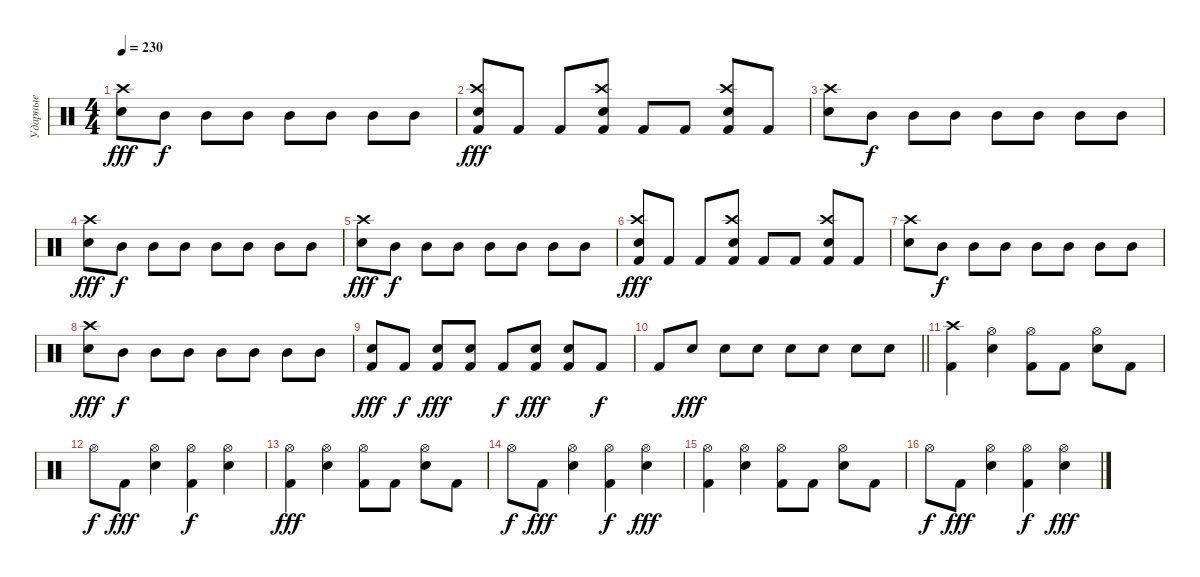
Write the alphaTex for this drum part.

\track ("Ударные" "Ударные") {instrument percussion}
\staff {score}
\articulation defaults
\ts (4 4)
\tempo 230
\clef neutral
\ks c
("Snare (hit) 2" "Crash high (hit)").8{dy fff} "Mid Tom (hit)".8{dy f} "Mid Tom (hit)".8 "Mid Tom (hit)".8 "Mid Tom (hit)".8 "Mid Tom (hit)".8 "Mid Tom (hit)".8 "Mid Tom (hit)".8 |
("Kick (hit) 2" "Snare (hit) 2" "Crash high (hit)").8{dy fff} "Kick (hit) 2".8 "Kick (hit) 2".8 ("Kick (hit) 2" "Snare (hit) 2" "Crash high (hit)").8 "Kick (hit) 2".8 "Kick (hit) 2".8 ("Kick (hit) 2" "Snare (hit) 2" "Crash high (hit)").8 "Kick (hit) 2".8 |
("Snare (hit) 2" "Crash high (hit)").8 "Mid Tom (hit)".8{dy f} "Mid Tom (hit)".8 "Mid Tom (hit)".8 "Mid Tom (hit)".8 "Mid Tom (hit)".8 "Mid Tom (hit)".8 "Mid Tom (hit)".8 |
("Snare (hit) 2" "Crash high (hit)").8{dy fff} "Mid Tom (hit)".8{dy f} "Mid Tom (hit)".8 "Mid Tom (hit)".8 "Mid Tom (hit)".8 "Mid Tom (hit)".8 "Mid Tom (hit)".8 "Mid Tom (hit)".8 |
("Snare (hit) 2" "Crash high (hit)").8{dy fff} "Mid Tom (hit)".8{dy f} "Mid Tom (hit)".8 "Mid Tom (hit)".8 "Mid Tom (hit)".8 "Mid Tom (hit)".8 "Mid Tom (hit)".8 "Mid Tom (hit)".8 |
("Kick (hit) 2" "Snare (hit) 2" "Crash high (hit)").8{dy fff} "Kick (hit) 2".8 "Kick (hit) 2".8 ("Kick (hit) 2" "Snare (hit) 2" "Crash high (hit)").8 "Kick (hit) 2".8 "Kick (hit) 2".8 ("Kick (hit) 2" "Snare (hit) 2" "Crash high (hit)").8 "Kick (hit) 2".8 |
("Snare (hit) 2" "Crash high (hit)").8 "Mid Tom (hit)".8{dy f} "Mid Tom (hit)".8 "Mid Tom (hit)".8 "Mid Tom (hit)".8 "Mid Tom (hit)".8 "Mid Tom (hit)".8 "Mid Tom (hit)".8 |
("Snare (hit) 2" "Crash high (hit)").8{dy fff} "Mid Tom (hit)".8{dy f} "Mid Tom (hit)".8 "Mid Tom (hit)".8 "Mid Tom (hit)".8 "Mid Tom (hit)".8 "Mid Tom (hit)".8 "Mid Tom (hit)".8 |
("Kick (hit) 2" "Snare (hit) 2").8{dy fff} "Kick (hit) 2".8{dy f} ("Kick (hit) 2" "Snare (hit) 2").8{dy fff} ("Kick (hit) 2" "Snare (hit) 2").8 "Kick (hit) 2".8{dy f} ("Kick (hit) 2" "Snare (hit) 2").8{dy fff} ("Kick (hit) 2" "Snare (hit) 2").8 "Kick (hit) 2".8{dy f} |
\barLineRight lightlight "Kick (hit) 2".8 "Snare (hit) 2".8{dy fff} "Snare (hit) 2".8 "Snare (hit) 2".8 "Snare (hit) 2".8 "Snare (hit) 2".8 "Snare (hit) 2".8 "Snare (hit) 2".8
|
("Kick (hit) 2" "Crash high (hit)").4 ("Snare (hit) 2" "Hi-Hat (open)").4 ("Kick (hit) 2" "Hi-Hat (open)").8 "Kick (hit) 2".8 ("Snare (hit) 2" "Hi-Hat (open)").8 "Kick (hit) 2".8 |
"Hi-Hat (open)".8{dy f} "Kick (hit) 2".8{dy fff} ("Snare (hit) 2" "Hi-Hat (open)").4 ("Kick (hit) 2" "Hi-Hat (open)").4{dy f} ("Snare (hit) 2" "Hi-Hat (open)").4 |
("Kick (hit) 2" "Hi-Hat (open)").4{dy fff} ("Snare (hit) 2" "Hi-Hat (open)").4 ("Kick (hit) 2" "Hi-Hat (open)").8 "Kick (hit) 2".8 ("Snare (hit) 2" "Hi-Hat (open)").8 "Kick (hit) 2".8 |
"Hi-Hat (open)".8{dy f} "Kick (hit) 2".8{dy fff} ("Snare (hit) 2" "Hi-Hat (open)").4 ("Kick (hit) 2" "Hi-Hat (open)").4{dy f} ("Snare (hit) 2" "Hi-Hat (open)").4{dy fff} |
("Kick (hit) 2" "Hi-Hat (open)").4 ("Snare (hit) 2" "Hi-Hat (open)").4 ("Kick (hit) 2" "Hi-Hat (open)").8 "Kick (hit) 2".8 ("Snare (hit) 2" "Hi-Hat (open)").8 "Kick (hit) 2".8 |
"Hi-Hat (open)".8{dy f} "Kick (hit) 2".8{dy fff} ("Snare (hit) 2" "Hi-Hat (open)").4 ("Kick (hit) 2" "Hi-Hat (open)").4{dy f} ("Snare (hit) 2" "Hi-Hat (open)").4{dy fff}
